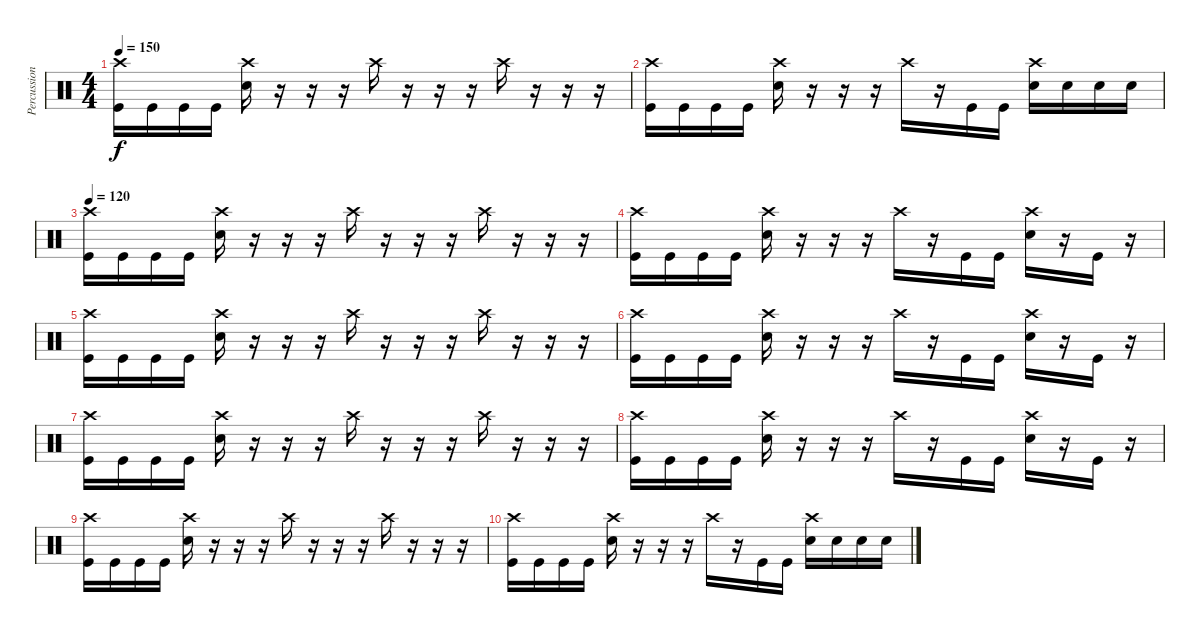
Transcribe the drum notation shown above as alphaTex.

\track ("Percussion" "Percussion") {instrument percussion}
\staff {score}
\articulation defaults
\ts (4 4)
\tempo 150
\clef neutral
\ks c
("Crash high (hit)" "Kick (hit)").16{dy f} "Kick (hit)".16 "Kick (hit)".16 "Kick (hit)".16 ("Crash high (hit)" "Electric Snare (hit)").16 r.16 r.16 r.16 "Crash high (hit)".16 r.16 r.16 r.16 "Crash high (hit)".16 r.16 r.16 r.16 |
("Crash high (hit)" "Kick (hit)").16 "Kick (hit)".16 "Kick (hit)".16 "Kick (hit)".16 ("Crash high (hit)" "Electric Snare (hit)").16 r.16 r.16 r.16 "Crash high (hit)".16 r.16 "Kick (hit)".16 "Kick (hit)".16 ("Crash high (hit)" "Electric Snare (hit)").16 "Electric Snare (hit)".16 "Electric Snare (hit)".16 "Electric Snare (hit)".16 |
\tempo 120
("Crash high (hit)" "Kick (hit)").16 "Kick (hit)".16 "Kick (hit)".16 "Kick (hit)".16 ("Crash high (hit)" "Electric Snare (hit)").16 r.16 r.16 r.16 "Crash high (hit)".16 r.16 r.16 r.16 "Crash high (hit)".16 r.16 r.16 r.16 |
("Crash high (hit)" "Kick (hit)").16 "Kick (hit)".16 "Kick (hit)".16 "Kick (hit)".16 ("Crash high (hit)" "Electric Snare (hit)").16 r.16 r.16 r.16 "Crash high (hit)".16 r.16 "Kick (hit)".16 "Kick (hit)".16 ("Crash high (hit)" "Electric Snare (hit)").16 r.16 "Kick (hit)".16 r.16 |
("Crash high (hit)" "Kick (hit)").16 "Kick (hit)".16 "Kick (hit)".16 "Kick (hit)".16 ("Crash high (hit)" "Electric Snare (hit)").16 r.16 r.16 r.16 "Crash high (hit)".16 r.16 r.16 r.16 "Crash high (hit)".16 r.16 r.16 r.16 |
("Crash high (hit)" "Kick (hit)").16 "Kick (hit)".16 "Kick (hit)".16 "Kick (hit)".16 ("Crash high (hit)" "Electric Snare (hit)").16 r.16 r.16 r.16 "Crash high (hit)".16 r.16 "Kick (hit)".16 "Kick (hit)".16 ("Crash high (hit)" "Electric Snare (hit)").16 r.16 "Kick (hit)".16 r.16 |
("Crash high (hit)" "Kick (hit)").16 "Kick (hit)".16 "Kick (hit)".16 "Kick (hit)".16 ("Crash high (hit)" "Electric Snare (hit)").16 r.16 r.16 r.16 "Crash high (hit)".16 r.16 r.16 r.16 "Crash high (hit)".16 r.16 r.16 r.16 |
("Crash high (hit)" "Kick (hit)").16 "Kick (hit)".16 "Kick (hit)".16 "Kick (hit)".16 ("Crash high (hit)" "Electric Snare (hit)").16 r.16 r.16 r.16 "Crash high (hit)".16 r.16 "Kick (hit)".16 "Kick (hit)".16 ("Crash high (hit)" "Electric Snare (hit)").16 r.16 "Kick (hit)".16 r.16 |
("Crash high (hit)" "Kick (hit)").16 "Kick (hit)".16 "Kick (hit)".16 "Kick (hit)".16 ("Crash high (hit)" "Electric Snare (hit)").16 r.16 r.16 r.16 "Crash high (hit)".16 r.16 r.16 r.16 "Crash high (hit)".16 r.16 r.16 r.16 |
("Crash high (hit)" "Kick (hit)").16 "Kick (hit)".16 "Kick (hit)".16 "Kick (hit)".16 ("Crash high (hit)" "Electric Snare (hit)").16 r.16 r.16 r.16 "Crash high (hit)".16 r.16 "Kick (hit)".16 "Kick (hit)".16 ("Crash high (hit)" "Electric Snare (hit)").16 "Electric Snare (hit)".16 "Electric Snare (hit)".16 "Electric Snare (hit)".16
